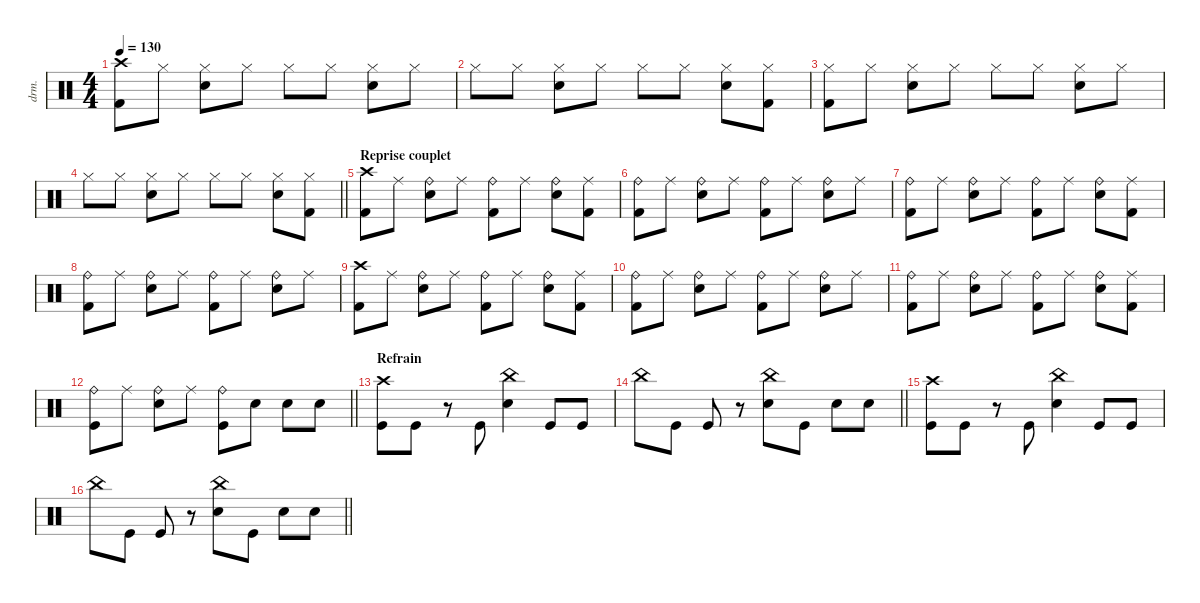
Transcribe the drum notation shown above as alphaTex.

\defaultSystemsLayout 4
\hideDynamics
\bracketExtendMode nobrackets
\track ("Manouche" "drm.") {instrument percussion}
\staff {score}
\articulation defaults
\ts (4 4)
\tempo 130
\clef neutral
\ks c
("Crash high (hit)" "Kick (hit) 2").8{dy f beam Down} "Hi-Hat (closed)".8{dy mp beam Down} ("Hi-Hat (closed)" "Snare (hit) 2").8{dy f beam Down} "Hi-Hat (closed)".8{dy mp beam Down} "Hi-Hat (closed)".8{dy f beam Down} "Hi-Hat (closed)".8{dy mp beam Down} ("Hi-Hat (closed)" "Snare (hit) 2").8{dy f beam Down} "Hi-Hat (closed)".8{dy mp beam Down} |
"Hi-Hat (closed)".8{dy f beam Down} "Hi-Hat (closed)".8{dy mp beam Down} ("Hi-Hat (closed)" "Snare (hit) 2").8{dy f beam Down} "Hi-Hat (closed)".8{dy mp beam Down} "Hi-Hat (closed)".8{dy f beam Down} "Hi-Hat (closed)".8{dy mp beam Down} ("Hi-Hat (closed)" "Snare (hit) 2").8{dy f beam Down} ("Hi-Hat (closed)" "Kick (hit) 2").8{dy mp beam Down} |
("Hi-Hat (closed)" "Kick (hit) 2").8{beam Down} "Hi-Hat (closed)".8{beam Down} ("Hi-Hat (closed)" "Snare (hit) 2").8{dy f beam Down} "Hi-Hat (closed)".8{dy mp beam Down} "Hi-Hat (closed)".8{dy f beam Down} "Hi-Hat (closed)".8{dy mp beam Down} ("Hi-Hat (closed)" "Snare (hit) 2").8{dy f beam Down} "Hi-Hat (closed)".8{dy mp beam Down} |
\barLineRight lightlight "Hi-Hat (closed)".8{dy f beam Down} "Hi-Hat (closed)".8{dy mp beam Down}
("Hi-Hat (closed)" "Snare (hit) 2").8{dy f beam Down} "Hi-Hat (closed)".8{dy mp beam Down} "Hi-Hat (closed)".8{dy f beam Down} "Hi-Hat (closed)".8{dy mp beam Down} ("Hi-Hat (closed)" "Snare (hit) 2").8{dy f beam Down} ("Hi-Hat (closed)" "Kick (hit) 2").8{dy mp beam Down} |
\section ("" "Reprise couplet")
("Crash high (hit)" "Kick (hit) 2").8{dy f beam Down} "Ride (middle)".8{dy mf beam Down} ("Ride (bell)" "Snare (hit) 2").8{dy f beam Down} "Ride (middle)".8{dy mf beam Down} ("Ride (bell)" "Kick (hit) 2").8{dy f beam Down} "Ride (middle)".8{dy mf beam Down} ("Ride (bell)" "Snare (hit) 2").8{dy f beam Down} ("Ride (middle)" "Kick (hit) 2").8{dy mf beam Down} |
("Ride (bell)" "Kick (hit) 2").8{dy f beam Down} "Ride (middle)".8{dy mf beam Down} ("Ride (bell)" "Snare (hit) 2").8{dy f beam Down} "Ride (middle)".8{dy mf beam Down} ("Ride (bell)" "Kick (hit) 2").8{dy f beam Down} "Ride (middle)".8{dy mf beam Down} ("Ride (bell)" "Snare (hit) 2").8{dy f beam Down} "Ride (middle)".8{dy mf beam Down} |
("Ride (bell)" "Kick (hit) 2").8{dy f beam Down} "Ride (middle)".8{dy mf beam Down} ("Ride (bell)" "Snare (hit) 2").8{dy f beam Down} "Ride (middle)".8{dy mf beam Down} ("Ride (bell)" "Kick (hit) 2").8{dy f beam Down} "Ride (middle)".8{dy mf beam Down} ("Ride (bell)" "Snare (hit) 2").8{dy f beam Down} ("Ride (middle)" "Kick (hit) 2").8{dy mf beam Down} |
("Ride (bell)" "Kick (hit) 2").8{dy f beam Down} "Ride (middle)".8{dy mf beam Down} ("Ride (bell)" "Snare (hit) 2").8{dy f beam Down} "Ride (middle)".8{dy mf beam Down} ("Ride (bell)" "Kick (hit) 2").8{dy f beam Down} "Ride (middle)".8{dy mf beam Down} ("Ride (bell)" "Snare (hit) 2").8{dy f beam Down} "Ride (middle)".8{dy mf beam Down} |
("Crash high (hit)" "Kick (hit) 2").8{dy f beam Down} "Ride (middle)".8{dy mf beam Down} ("Ride (bell)" "Snare (hit) 2").8{dy f beam Down} "Ride (middle)".8{dy mf beam Down} ("Ride (bell)" "Kick (hit) 2").8{dy f beam Down} "Ride (middle)".8{dy mf beam Down} ("Ride (bell)" "Snare (hit) 2").8{dy f beam Down} ("Ride (middle)" "Kick (hit) 2").8{dy mf beam Down} |
("Ride (bell)" "Kick (hit) 2").8{dy f beam Down} "Ride (middle)".8{dy mf beam Down} ("Ride (bell)" "Snare (hit) 2").8{dy f beam Down} "Ride (middle)".8{dy mf beam Down} ("Ride (bell)" "Kick (hit) 2").8{dy f beam Down} "Ride (middle)".8{dy mf beam Down} ("Ride (bell)" "Snare (hit) 2").8{dy f beam Down} "Ride (middle)".8{dy mf beam Down} |
("Ride (bell)" "Kick (hit) 2").8{dy f beam Down} "Ride (middle)".8{dy mf beam Down} ("Ride (bell)" "Snare (hit) 2").8{dy f beam Down} "Ride (middle)".8{dy mf beam Down} ("Ride (bell)" "Kick (hit) 2").8{dy f beam Down} "Ride (middle)".8{dy mf beam Down} ("Ride (bell)" "Snare (hit) 2").8{dy f beam Down} ("Ride (middle)" "Kick (hit) 2").8{dy mf beam Down} |
\barLineRight lightlight
("Ride (bell)" "Kick (hit)").8{dy f beam Down} "Ride (middle)".8{dy mf beam Down} ("Ride (bell)" "Snare (hit) 2").8{dy f beam Down} "Ride (middle)".8{dy mf beam Down} ("Ride (bell)" "Kick (hit)").8{dy f beam Down} "Snare (hit) 2".8{beam Down} "Snare (hit) 2".8{beam Down} "Snare (hit) 2".8{beam Down} |
\section ("" "Refrain")
("Crash high (hit)" "Kick (hit)").8{beam Down} "Kick (hit)".8{beam Down} r.8{beam Down} "Kick (hit)".8{beam Up} ("China (hit)" "Snare (hit) 2").4{beam Down} "Kick (hit)".8{beam Up} "Kick (hit)".8{beam Up} |
\barLineRight lightlight "China (hit)".8{beam Down} "Kick (hit)".8{beam Down} "Kick (hit)".8{beam Up}
r.8{beam Up} ("China (hit)" "Snare (hit) 2").8{beam Down} "Kick (hit)".8{beam Down} "Snare (hit) 2".8{beam Down} "Snare (hit) 2".8{beam Down} |
("Crash high (hit)" "Kick (hit)").8{beam Down} "Kick (hit)".8{beam Down} r.8{beam Down} "Kick (hit)".8{beam Up} ("China (hit)" "Snare (hit) 2").4{beam Down} "Kick (hit)".8{beam Up} "Kick (hit)".8{beam Up} |
\barLineRight lightlight "China (hit)".8{beam Down} "Kick (hit)".8{beam Down} "Kick (hit)".8{beam Up}
r.8{beam Up} ("China (hit)" "Snare (hit) 2").8{beam Down} "Kick (hit)".8{beam Down} "Snare (hit) 2".8{beam Down} "Snare (hit) 2".8{beam Down}
